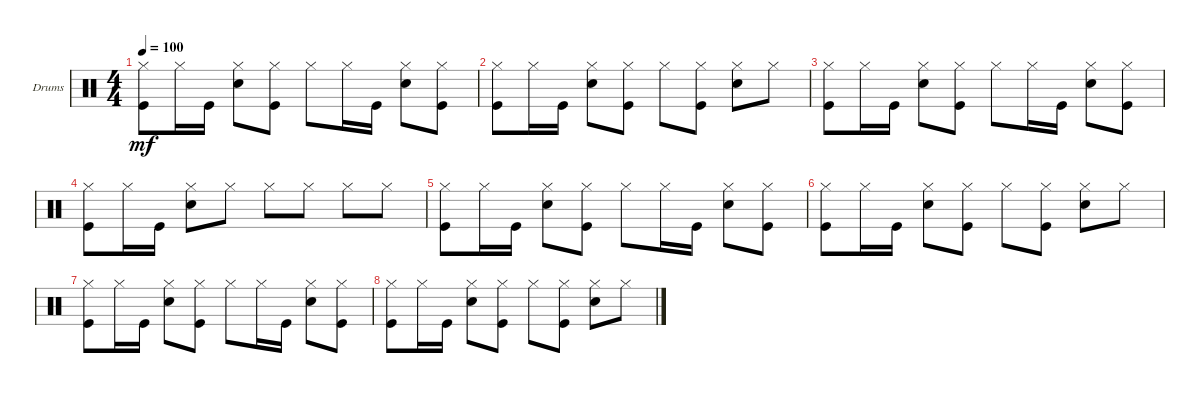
\defaultSystemsLayout 4
\bracketExtendMode groupsimilarinstruments
\firstSystemTrackNameOrientation horizontal
\otherSystemsTrackNameOrientation horizontal
\track ("Drumkit" "Drums") {instrument percussion}
\staff {score}
\articulation defaults
\ts (4 4)
\tempo 100
\clef neutral
\ks c
("Kick (hit)" "Hi-Hat (closed)").8{dy mf} "Hi-Hat (closed)".16 "Kick (hit)".16 ("Hi-Hat (closed)" "Snare (hit) 2").8 ("Hi-Hat (closed)" "Kick (hit)").8 "Hi-Hat (closed)".8 "Hi-Hat (closed)".16 "Kick (hit)".16 ("Hi-Hat (closed)" "Snare (hit) 2").8 ("Hi-Hat (closed)" "Kick (hit)").8 |
("Kick (hit)" "Hi-Hat (closed)").8 "Hi-Hat (closed)".16 "Kick (hit)".16 ("Hi-Hat (closed)" "Snare (hit) 2").8 ("Hi-Hat (closed)" "Kick (hit)").8 "Hi-Hat (closed)".8 ("Kick (hit)" "Hi-Hat (closed)").8 ("Hi-Hat (closed)" "Snare (hit) 2").8 "Hi-Hat (closed)".8 |
("Kick (hit)" "Hi-Hat (closed)").8 "Hi-Hat (closed)".16 "Kick (hit)".16 ("Hi-Hat (closed)" "Snare (hit) 2").8 ("Hi-Hat (closed)" "Kick (hit)").8 "Hi-Hat (closed)".8 "Hi-Hat (closed)".16 "Kick (hit)".16 ("Hi-Hat (closed)" "Snare (hit) 2").8 ("Hi-Hat (closed)" "Kick (hit)").8 |
("Kick (hit)" "Hi-Hat (closed)").8 "Hi-Hat (closed)".16 "Kick (hit)".16 ("Hi-Hat (closed)" "Snare (hit) 2").8 "Hi-Hat (closed)".8 "Hi-Hat (closed)".8 "Hi-Hat (closed)".8 "Hi-Hat (closed)".8 "Hi-Hat (closed)".8 |
("Kick (hit)" "Hi-Hat (closed)").8 "Hi-Hat (closed)".16 "Kick (hit)".16 ("Hi-Hat (closed)" "Snare (hit) 2").8 ("Hi-Hat (closed)" "Kick (hit)").8 "Hi-Hat (closed)".8 "Hi-Hat (closed)".16 "Kick (hit)".16 ("Hi-Hat (closed)" "Snare (hit) 2").8 ("Hi-Hat (closed)" "Kick (hit)").8 |
("Kick (hit)" "Hi-Hat (closed)").8 "Hi-Hat (closed)".16 "Kick (hit)".16 ("Hi-Hat (closed)" "Snare (hit) 2").8 ("Hi-Hat (closed)" "Kick (hit)").8 "Hi-Hat (closed)".8 ("Kick (hit)" "Hi-Hat (closed)").8 ("Hi-Hat (closed)" "Snare (hit) 2").8 "Hi-Hat (closed)".8 |
("Kick (hit)" "Hi-Hat (closed)").8 "Hi-Hat (closed)".16 "Kick (hit)".16 ("Hi-Hat (closed)" "Snare (hit) 2").8 ("Hi-Hat (closed)" "Kick (hit)").8 "Hi-Hat (closed)".8 "Hi-Hat (closed)".16 "Kick (hit)".16 ("Hi-Hat (closed)" "Snare (hit) 2").8 ("Hi-Hat (closed)" "Kick (hit)").8 |
("Kick (hit)" "Hi-Hat (closed)").8 "Hi-Hat (closed)".16 "Kick (hit)".16 ("Hi-Hat (closed)" "Snare (hit) 2").8 ("Hi-Hat (closed)" "Kick (hit)").8 "Hi-Hat (closed)".8 ("Kick (hit)" "Hi-Hat (closed)").8 ("Hi-Hat (closed)" "Snare (hit) 2").8 "Hi-Hat (closed)".8
